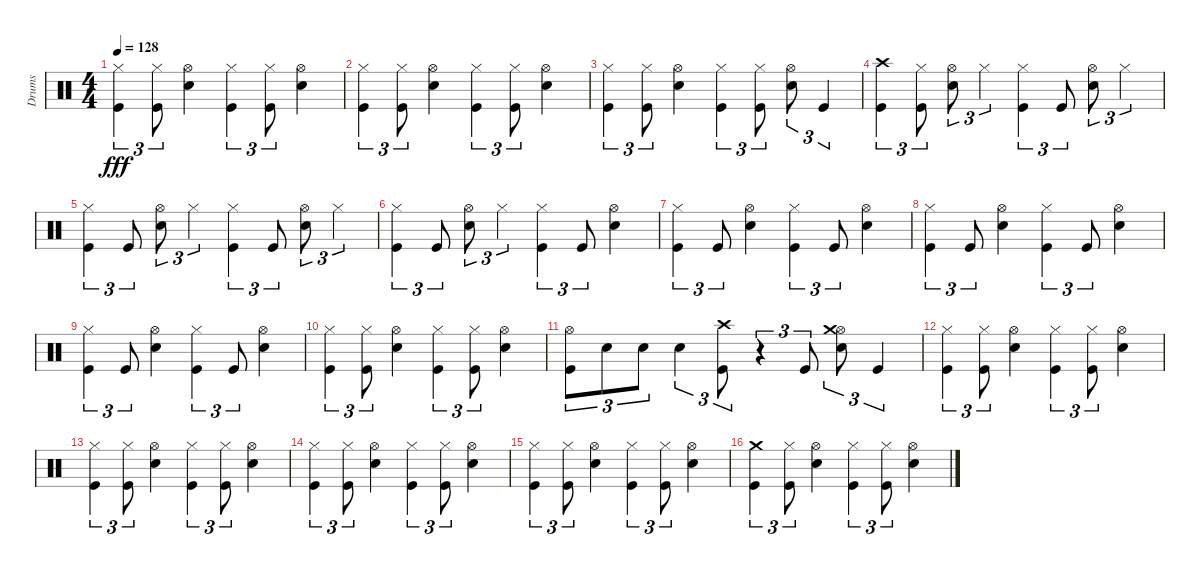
\track ("Drums" "Drums") {instrument percussion}
\staff {score}
\articulation defaults
\ts (4 4)
\tempo 128
\clef neutral
\ks c
("Hi-Hat (closed)" "Kick (hit)").4{tu (3 2) dy fff} ("Hi-Hat (closed)" "Kick (hit)").8{tu (3 2)} ("Hi-Hat (open)" "Snare (hit) 2").4 ("Hi-Hat (closed)" "Kick (hit)").4{tu (3 2)} ("Hi-Hat (closed)" "Kick (hit)").8{tu (3 2)} ("Hi-Hat (open)" "Snare (hit) 2").4 |
("Hi-Hat (closed)" "Kick (hit)").4{tu (3 2)} ("Hi-Hat (closed)" "Kick (hit)").8{tu (3 2)} ("Hi-Hat (open)" "Snare (hit) 2").4 ("Hi-Hat (closed)" "Kick (hit)").4{tu (3 2)} ("Hi-Hat (closed)" "Kick (hit)").8{tu (3 2)} ("Hi-Hat (open)" "Snare (hit) 2").4 |
("Hi-Hat (closed)" "Kick (hit)").4{tu (3 2)} ("Hi-Hat (closed)" "Kick (hit)").8{tu (3 2)} ("Hi-Hat (open)" "Snare (hit) 2").4 ("Hi-Hat (closed)" "Kick (hit)").4{tu (3 2)} ("Hi-Hat (closed)" "Kick (hit)").8{tu (3 2)} ("Hi-Hat (open)" "Snare (hit) 2").8{tu (3 2)} "Kick (hit)".4{tu (3 2)} |
("Crash high (hit)" "Kick (hit)").4{tu (3 2)} ("Hi-Hat (closed)" "Kick (hit)").8{tu (3 2)} ("Hi-Hat (open)" "Snare (hit) 2").8{tu (3 2)} "Hi-Hat (closed)".4{tu (3 2)} ("Hi-Hat (closed)" "Kick (hit)").4{tu (3 2)} "Kick (hit)".8{tu (3 2)} ("Hi-Hat (open)" "Snare (hit) 2").8{tu (3 2)} "Hi-Hat (closed)".4{tu (3 2)} |
("Hi-Hat (closed)" "Kick (hit)").4{tu (3 2)} "Kick (hit)".8{tu (3 2)} ("Hi-Hat (open)" "Snare (hit) 2").8{tu (3 2)} "Hi-Hat (closed)".4{tu (3 2)} ("Hi-Hat (closed)" "Kick (hit)").4{tu (3 2)} "Kick (hit)".8{tu (3 2)} ("Hi-Hat (open)" "Snare (hit) 2").8{tu (3 2)} "Hi-Hat (closed)".4{tu (3 2)} |
("Hi-Hat (closed)" "Kick (hit)").4{tu (3 2)} "Kick (hit)".8{tu (3 2)} ("Hi-Hat (open)" "Snare (hit) 2").8{tu (3 2)} "Hi-Hat (closed)".4{tu (3 2)} ("Hi-Hat (closed)" "Kick (hit)").4{tu (3 2)} "Kick (hit)".8{tu (3 2)} ("Hi-Hat (open)" "Snare (hit) 2").4 |
("Hi-Hat (closed)" "Kick (hit)").4{tu (3 2)} "Kick (hit)".8{tu (3 2)} ("Hi-Hat (open)" "Snare (hit) 2").4 ("Hi-Hat (closed)" "Kick (hit)").4{tu (3 2)} "Kick (hit)".8{tu (3 2)} ("Hi-Hat (open)" "Snare (hit) 2").4 |
("Hi-Hat (closed)" "Kick (hit)").4{tu (3 2)} "Kick (hit)".8{tu (3 2)} ("Hi-Hat (open)" "Snare (hit) 2").4 ("Hi-Hat (closed)" "Kick (hit)").4{tu (3 2)} "Kick (hit)".8{tu (3 2)} ("Hi-Hat (open)" "Snare (hit) 2").4 |
("Hi-Hat (closed)" "Kick (hit)").4{tu (3 2)} "Kick (hit)".8{tu (3 2)} ("Hi-Hat (open)" "Snare (hit) 2").4 ("Hi-Hat (closed)" "Kick (hit)").4{tu (3 2)} "Kick (hit)".8{tu (3 2)} ("Hi-Hat (open)" "Snare (hit) 2").4 |
("Hi-Hat (closed)" "Kick (hit)").4{tu (3 2)} ("Hi-Hat (closed)" "Kick (hit)").8{tu (3 2)} ("Hi-Hat (open)" "Snare (hit) 2").4 ("Hi-Hat (closed)" "Kick (hit)").4{tu (3 2)} ("Hi-Hat (closed)" "Kick (hit)").8{tu (3 2)} ("Hi-Hat (open)" "Snare (hit) 2").4 |
("Hi-Hat (open)" "Kick (hit)").8{tu (3 2)} "Snare (hit) 2".8{tu (3 2)} "Snare (hit) 2".8{tu (3 2)} "Snare (hit) 2".4{tu (3 2)} ("Crash high (hit)" "Kick (hit)").8{tu (3 2)} r.4{tu (3 2)} "Kick (hit)".8{tu (3 2)} ("Hi-Hat (open)" "Crash medium (hit)" "Snare (hit) 2").8{tu (3 2)} "Kick (hit)".4{tu (3 2)} |
("Hi-Hat (closed)" "Kick (hit)").4{tu (3 2)} ("Hi-Hat (closed)" "Kick (hit)").8{tu (3 2)} ("Hi-Hat (open)" "Snare (hit) 2").4 ("Hi-Hat (closed)" "Kick (hit)").4{tu (3 2)} ("Hi-Hat (closed)" "Kick (hit)").8{tu (3 2)} ("Hi-Hat (open)" "Snare (hit) 2").4 |
("Hi-Hat (closed)" "Kick (hit)").4{tu (3 2)} ("Hi-Hat (closed)" "Kick (hit)").8{tu (3 2)} ("Hi-Hat (open)" "Snare (hit) 2").4 ("Hi-Hat (closed)" "Kick (hit)").4{tu (3 2)} ("Hi-Hat (closed)" "Kick (hit)").8{tu (3 2)} ("Hi-Hat (open)" "Snare (hit) 2").4 |
("Hi-Hat (closed)" "Kick (hit)").4{tu (3 2)} ("Hi-Hat (closed)" "Kick (hit)").8{tu (3 2)} ("Hi-Hat (open)" "Snare (hit) 2").4 ("Hi-Hat (closed)" "Kick (hit)").4{tu (3 2)} ("Hi-Hat (closed)" "Kick (hit)").8{tu (3 2)} ("Hi-Hat (open)" "Snare (hit) 2").4 |
("Hi-Hat (closed)" "Kick (hit)").4{tu (3 2)} ("Hi-Hat (closed)" "Kick (hit)").8{tu (3 2)} ("Hi-Hat (open)" "Snare (hit) 2").4 ("Hi-Hat (closed)" "Kick (hit)").4{tu (3 2)} ("Hi-Hat (closed)" "Kick (hit)").8{tu (3 2)} ("Hi-Hat (open)" "Snare (hit) 2").4 |
("Crash medium (hit)" "Kick (hit)").4{tu (3 2)} ("Hi-Hat (closed)" "Kick (hit)").8{tu (3 2)} ("Hi-Hat (open)" "Snare (hit) 2").4 ("Hi-Hat (closed)" "Kick (hit)").4{tu (3 2)} ("Hi-Hat (closed)" "Kick (hit)").8{tu (3 2)} ("Hi-Hat (open)" "Snare (hit) 2").4
